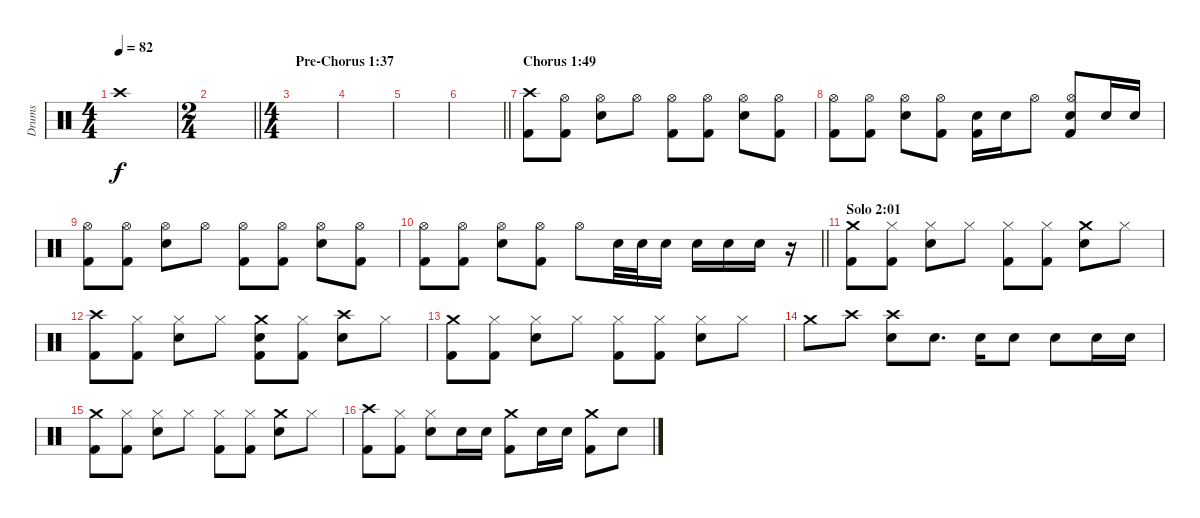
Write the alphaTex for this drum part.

\track ("Drums" "Drums") {instrument percussion}
\staff {score}
\articulation defaults
\ts (4 4)
\tempo 82
\clef neutral
\ks c "Crash high (hit)".1{dy f}
|
\ts (2 4)
\barLineRight lightlight
|
\ts (4 4)
\section ("" "Pre-Chorus 1:37")
|
|
|
\barLineRight lightlight
|
\section ("" "Chorus 1:49")
("Crash high (hit)" "Kick (hit) 2").8 ("Hi-Hat (open)" "Kick (hit) 2").8 ("Hi-Hat (open)" "Snare (hit) 2").8 "Hi-Hat (open)".8 ("Hi-Hat (open)" "Kick (hit) 2").8 ("Hi-Hat (open)" "Kick (hit) 2").8 ("Hi-Hat (open)" "Snare (hit) 2").8 ("Hi-Hat (open)" "Kick (hit) 2").8 |
("Hi-Hat (open)" "Kick (hit) 2").8 ("Hi-Hat (open)" "Kick (hit) 2").8 ("Hi-Hat (open)" "Snare (hit) 2").8 ("Hi-Hat (open)" "Kick (hit) 2").8 ("Snare (hit) 2" "Kick (hit) 2").16 "Snare (hit) 2".16 "Hi-Hat (open)".8 ("Hi-Hat (open)" "Snare (hit) 2" "Kick (hit) 2").8 "Snare (hit) 2".16 "Snare (hit) 2".16 |
("Hi-Hat (open)" "Kick (hit) 2").8 ("Hi-Hat (open)" "Kick (hit) 2").8 ("Hi-Hat (open)" "Snare (hit) 2").8 "Hi-Hat (open)".8 ("Hi-Hat (open)" "Kick (hit) 2").8 ("Hi-Hat (open)" "Kick (hit) 2").8 ("Hi-Hat (open)" "Snare (hit) 2").8 ("Hi-Hat (open)" "Kick (hit) 2").8 |
\barLineRight lightlight
("Hi-Hat (open)" "Kick (hit) 2").8 ("Hi-Hat (open)" "Kick (hit) 2").8 ("Hi-Hat (open)" "Snare (hit) 2").8 ("Hi-Hat (open)" "Kick (hit) 2").8 "Hi-Hat (open)".8 "Snare (hit) 2".32 "Snare (hit) 2".32 "Snare (hit) 2".16 "Snare (hit) 2".16 "Snare (hit) 2".16 "Snare (hit) 2".16 r.16 |
\section ("" "Solo 2:01")
("Crash medium (hit)" "Kick (hit) 2").8 ("Hi-Hat (closed)" "Kick (hit) 2").8 ("Hi-Hat (closed)" "Snare (hit) 2").8 "Hi-Hat (closed)".8 ("Hi-Hat (closed)" "Kick (hit) 2").8 ("Hi-Hat (closed)" "Kick (hit) 2").8 ("Crash medium (hit)" "Snare (hit) 2").8 "Hi-Hat (closed)".8 |
("Crash high (hit)" "Kick (hit) 2").8 ("Hi-Hat (closed)" "Kick (hit) 2").8 ("Hi-Hat (closed)" "Snare (hit) 2").8 "Hi-Hat (closed)".8 ("Crash medium (hit)" "Snare (hit) 2" "Kick (hit) 2").8 ("Hi-Hat (closed)" "Kick (hit) 2").8 ("Crash high (hit)" "Snare (hit) 2").8 "Hi-Hat (closed)".8 |
("Crash medium (hit)" "Kick (hit) 2").8 ("Hi-Hat (closed)" "Kick (hit) 2").8 ("Hi-Hat (closed)" "Snare (hit) 2").8 "Hi-Hat (closed)".8 ("Hi-Hat (closed)" "Kick (hit) 2").8 ("Hi-Hat (closed)" "Kick (hit) 2").8 ("Hi-Hat (closed)" "Snare (hit) 2").8 "Hi-Hat (closed)".8 |
"Crash medium (hit)".8 "Crash high (hit)".8 ("Crash high (hit)" "Snare (hit) 2").8 "Snare (hit) 2".8{d} "Snare (hit) 2".16 "Snare (hit) 2".8 "Snare (hit) 2".8 "Snare (hit) 2".16 "Snare (hit) 2".16 |
("Crash medium (hit)" "Kick (hit) 2").8 ("Hi-Hat (closed)" "Kick (hit) 2").8 ("Hi-Hat (closed)" "Snare (hit) 2").8 "Hi-Hat (closed)".8 ("Hi-Hat (closed)" "Kick (hit) 2").8 ("Hi-Hat (closed)" "Kick (hit) 2").8 ("Crash medium (hit)" "Snare (hit) 2").8 "Hi-Hat (closed)".8 |
("Crash high (hit)" "Kick (hit) 2").8 ("Hi-Hat (closed)" "Kick (hit) 2").8 ("Hi-Hat (closed)" "Snare (hit) 2").8 "Snare (hit) 2".16 "Snare (hit) 2".16 ("Crash medium (hit)" "Kick (hit) 2").8 "Snare (hit) 2".16 "Snare (hit) 2".16 ("Crash medium (hit)" "Kick (hit) 2").8 "Snare (hit) 2".8
